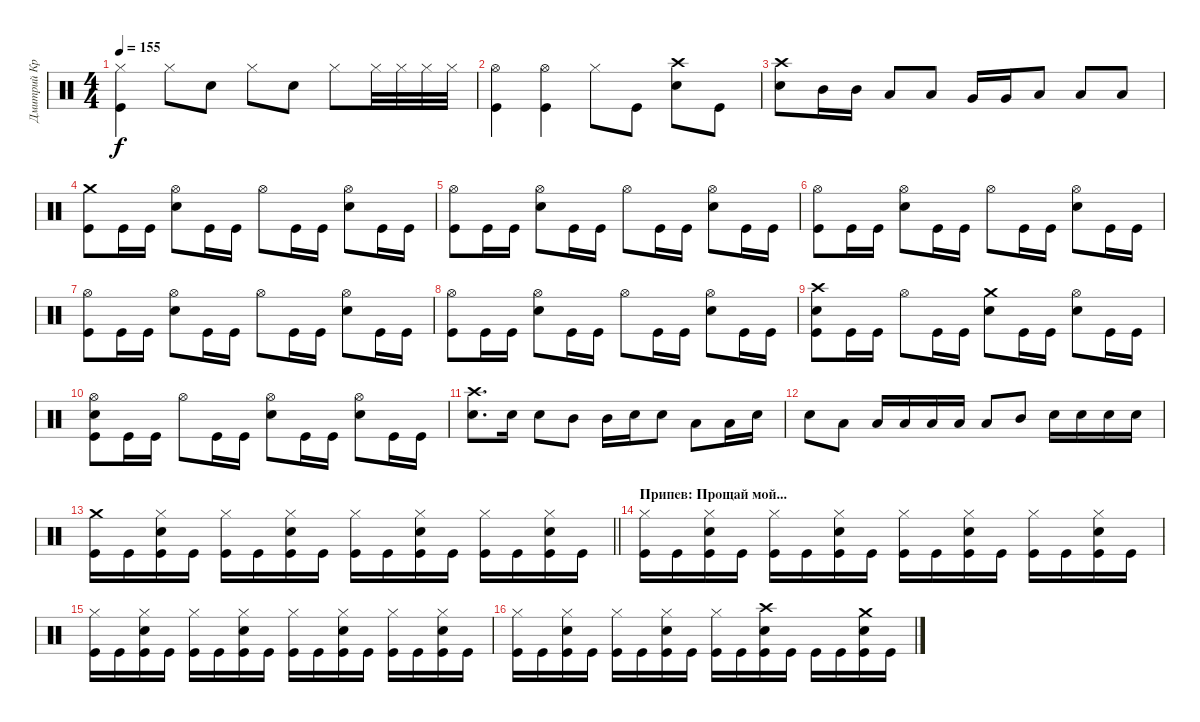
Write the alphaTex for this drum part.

\track ("Дмитрий Кривенков" "Дмитрий Кр") {instrument percussion}
\staff {score}
\articulation defaults
\ts (4 4)
\tempo 155
\clef neutral
\ks c
("Hi-Hat (closed)" "Kick (hit)").4{dy f} "Hi-Hat (closed)".8 "Snare (hit) 2".8 "Hi-Hat (closed)".8 "Snare (hit) 2".8 "Hi-Hat (closed)".8 "Hi-Hat (closed)".32 "Hi-Hat (closed)".32 "Hi-Hat (closed)".32 "Hi-Hat (closed)".32 |
("Hi-Hat (open)" "Kick (hit)").4 ("Hi-Hat (open)" "Kick (hit)").4 "Hi-Hat (closed)".8 "Kick (hit)".8 ("Crash high (hit)" "Snare (hit) 2").8 "Kick (hit)".8 |
("Crash high (hit)" "Snare (hit) 2").8 "Mid Tom (hit)".16 "Mid Tom (hit)".16 "Low Tom (hit)".8 "Low Tom (hit)".8 "Very Low Tom (hit)".16 "Very Low Tom (hit)".16 "Low Floor Tom (hit)".8 "Low Floor Tom (hit)".8 "Low Floor Tom (hit)".8 |
("Crash medium (hit)" "Kick (hit)").8 "Kick (hit)".16 "Kick (hit)".16 ("Hi-Hat (open)" "Snare (hit) 2").8 "Kick (hit)".16 "Kick (hit)".16 "Hi-Hat (open)".8 "Kick (hit)".16 "Kick (hit)".16 ("Hi-Hat (open)" "Snare (hit) 2").8 "Kick (hit)".16 "Kick (hit)".16 |
("Hi-Hat (open)" "Kick (hit)").8 "Kick (hit)".16 "Kick (hit)".16 ("Hi-Hat (open)" "Snare (hit) 2").8 "Kick (hit)".16 "Kick (hit)".16 "Hi-Hat (open)".8 "Kick (hit)".16 "Kick (hit)".16 ("Hi-Hat (open)" "Snare (hit) 2").8 "Kick (hit)".16 "Kick (hit)".16 |
("Hi-Hat (open)" "Kick (hit)").8 "Kick (hit)".16 "Kick (hit)".16 ("Hi-Hat (open)" "Snare (hit) 2").8 "Kick (hit)".16 "Kick (hit)".16 "Hi-Hat (open)".8 "Kick (hit)".16 "Kick (hit)".16 ("Hi-Hat (open)" "Snare (hit) 2").8 "Kick (hit)".16 "Kick (hit)".16 |
("Hi-Hat (open)" "Kick (hit)").8 "Kick (hit)".16 "Kick (hit)".16 ("Hi-Hat (open)" "Snare (hit) 2").8 "Kick (hit)".16 "Kick (hit)".16 "Hi-Hat (open)".8 "Kick (hit)".16 "Kick (hit)".16 ("Hi-Hat (open)" "Snare (hit) 2").8 "Kick (hit)".16 "Kick (hit)".16 |
("Hi-Hat (open)" "Kick (hit)").8 "Kick (hit)".16 "Kick (hit)".16 ("Hi-Hat (open)" "Snare (hit) 2").8 "Kick (hit)".16 "Kick (hit)".16 "Hi-Hat (open)".8 "Kick (hit)".16 "Kick (hit)".16 ("Hi-Hat (open)" "Snare (hit) 2").8 "Kick (hit)".16 "Kick (hit)".16 |
("Crash high (hit)" "Snare (hit) 2" "Kick (hit)").8 "Kick (hit)".16 "Kick (hit)".16 "Hi-Hat (open)".8 "Kick (hit)".16 "Kick (hit)".16 ("Crash medium (hit)" "Snare (hit) 2").8 "Kick (hit)".16 "Kick (hit)".16 ("Hi-Hat (open)" "Snare (hit) 2").8 "Kick (hit)".16 "Kick (hit)".16 |
("Hi-Hat (open)" "Snare (hit) 2" "Kick (hit)").8 "Kick (hit)".16 "Kick (hit)".16 "Hi-Hat (open)".8 "Kick (hit)".16 "Kick (hit)".16 ("Hi-Hat (open)" "Snare (hit) 2").8 "Kick (hit)".16 "Kick (hit)".16 ("Hi-Hat (open)" "Snare (hit) 2").8 "Kick (hit)".16 "Kick (hit)".16 |
("Crash high (hit)" "Snare (hit) 2").8{d} "Snare (hit) 2".16 "Snare (hit) 2".8 "Mid Tom (hit)".8 "Mid Tom (hit)".16 "Snare (hit) 2".16 "Snare (hit) 2".8 "Low Tom (hit)".8 "Low Tom (hit)".16 "Snare (hit) 2".16 |
"Snare (hit) 2".8 "Low Tom (hit)".8 "Low Tom (hit)".16 "Low Tom (hit)".16 "Low Tom (hit)".16 "Low Tom (hit)".16 "Low Tom (hit)".8 "Mid Tom (hit)".8 "Snare (hit) 2".16 "Snare (hit) 2".16 "Snare (hit) 2".16 "Snare (hit) 2".16 |
\barLineRight lightlight
("Crash medium (hit)" "Kick (hit)").16 "Kick (hit)".16 ("Hi-Hat (closed)" "Snare (hit) 2" "Kick (hit)").16 "Kick (hit)".16 ("Hi-Hat (closed)" "Kick (hit)").16 "Kick (hit)".16 ("Hi-Hat (closed)" "Snare (hit) 2" "Kick (hit)").16 "Kick (hit)".16 ("Hi-Hat (closed)" "Kick (hit)").16 "Kick (hit)".16 ("Hi-Hat (closed)" "Snare (hit) 2" "Kick (hit)").16 "Kick (hit)".16 ("Hi-Hat (closed)" "Kick (hit)").16 "Kick (hit)".16 ("Hi-Hat (closed)" "Snare (hit) 2" "Kick (hit)").16 "Kick (hit)".16 |
\section ("" "Припев: Прощай мой...")
("Hi-Hat (closed)" "Kick (hit)").16 "Kick (hit)".16 ("Hi-Hat (closed)" "Snare (hit) 2" "Kick (hit)").16 "Kick (hit)".16 ("Hi-Hat (closed)" "Kick (hit)").16 "Kick (hit)".16 ("Hi-Hat (closed)" "Snare (hit) 2" "Kick (hit)").16 "Kick (hit)".16 ("Hi-Hat (closed)" "Kick (hit)").16 "Kick (hit)".16 ("Hi-Hat (closed)" "Snare (hit) 2" "Kick (hit)").16 "Kick (hit)".16 ("Hi-Hat (closed)" "Kick (hit)").16 "Kick (hit)".16 ("Hi-Hat (closed)" "Snare (hit) 2" "Kick (hit)").16 "Kick (hit)".16 |
("Hi-Hat (closed)" "Kick (hit)").16 "Kick (hit)".16 ("Hi-Hat (closed)" "Snare (hit) 2" "Kick (hit)").16 "Kick (hit)".16 ("Hi-Hat (closed)" "Kick (hit)").16 "Kick (hit)".16 ("Hi-Hat (closed)" "Snare (hit) 2" "Kick (hit)").16 "Kick (hit)".16 ("Hi-Hat (closed)" "Kick (hit)").16 "Kick (hit)".16 ("Hi-Hat (closed)" "Snare (hit) 2" "Kick (hit)").16 "Kick (hit)".16 ("Hi-Hat (closed)" "Kick (hit)").16 "Kick (hit)".16 ("Hi-Hat (closed)" "Snare (hit) 2" "Kick (hit)").16 "Kick (hit)".16 |
("Hi-Hat (closed)" "Kick (hit)").16 "Kick (hit)".16 ("Hi-Hat (closed)" "Snare (hit) 2" "Kick (hit)").16 "Kick (hit)".16 ("Hi-Hat (closed)" "Kick (hit)").16 "Kick (hit)".16 ("Hi-Hat (closed)" "Snare (hit) 2" "Kick (hit)").16 "Kick (hit)".16 ("Hi-Hat (closed)" "Kick (hit)").16 "Kick (hit)".16 ("Crash high (hit)" "Snare (hit) 2" "Kick (hit)").16 "Kick (hit)".16 "Kick (hit)".16 "Kick (hit)".16 ("Crash medium (hit)" "Snare (hit) 2" "Kick (hit)").16 "Kick (hit)".16
